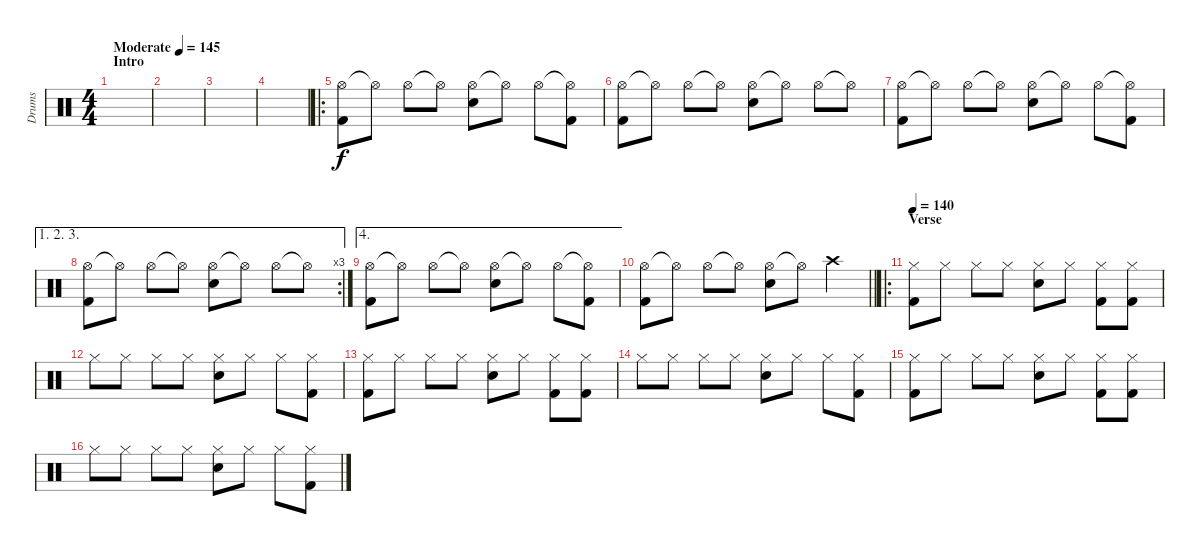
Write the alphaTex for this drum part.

\track ("Drums" "Drums") {instrument percussion}
\staff {score}
\articulation defaults
\ts (4 4)
\section ("" "Intro")
\tempo (145 "Moderate")
\clef neutral
\ks c
|
|
|
|
\ro
("Hi-Hat (open)" "Kick (hit) 2").8 "Hi-Hat (open)"{t}.8 "Hi-Hat (open)".8 "Hi-Hat (open)"{t}.8 ("Hi-Hat (open)" "Snare (hit) 2").8 "Hi-Hat (open)"{t}.8 "Hi-Hat (open)".8 ("Hi-Hat (open)"{t} "Kick (hit) 2").8 |
("Hi-Hat (open)" "Kick (hit) 2").8 "Hi-Hat (open)"{t}.8 "Hi-Hat (open)".8 "Hi-Hat (open)"{t}.8 ("Hi-Hat (open)" "Snare (hit) 2").8 "Hi-Hat (open)"{t}.8 "Hi-Hat (open)".8 "Hi-Hat (open)"{t}.8 |
("Hi-Hat (open)" "Kick (hit) 2").8 "Hi-Hat (open)"{t}.8 "Hi-Hat (open)".8 "Hi-Hat (open)"{t}.8 ("Hi-Hat (open)" "Snare (hit) 2").8 "Hi-Hat (open)"{t}.8 "Hi-Hat (open)".8 ("Hi-Hat (open)"{t} "Kick (hit) 2").8 |
\ae (1 2 3)
\rc 3
("Hi-Hat (open)" "Kick (hit) 2").8 "Hi-Hat (open)"{t}.8 "Hi-Hat (open)".8 "Hi-Hat (open)"{t}.8 ("Hi-Hat (open)" "Snare (hit) 2").8 "Hi-Hat (open)"{t}.8 "Hi-Hat (open)".8 "Hi-Hat (open)"{t}.8 |
\ae 4
("Hi-Hat (open)" "Kick (hit) 2").8 "Hi-Hat (open)"{t}.8 "Hi-Hat (open)".8 "Hi-Hat (open)"{t}.8 ("Hi-Hat (open)" "Snare (hit) 2").8 "Hi-Hat (open)"{t}.8 "Hi-Hat (open)".8 ("Hi-Hat (open)"{t} "Kick (hit) 2").8 |
\barLineRight lightlight
("Hi-Hat (open)" "Kick (hit) 2").8 "Hi-Hat (open)"{t}.8 "Hi-Hat (open)".8 "Hi-Hat (open)"{t}.8 ("Hi-Hat (open)" "Snare (hit) 2").8 "Hi-Hat (open)"{t}.8 "Crash high (hit)".4 |
\ro
\section ("" "Verse")
\tempo 140
("Hi-Hat (closed)" "Kick (hit) 2").8 "Hi-Hat (closed)".8 "Hi-Hat (closed)".8 "Hi-Hat (closed)".8 ("Hi-Hat (closed)" "Snare (hit) 2").8 "Hi-Hat (closed)".8 ("Hi-Hat (closed)" "Kick (hit) 2").8 ("Hi-Hat (closed)" "Kick (hit) 2").8 |
"Hi-Hat (closed)".8 "Hi-Hat (closed)".8 "Hi-Hat (closed)".8 "Hi-Hat (closed)".8 ("Hi-Hat (closed)" "Snare (hit) 2").8 "Hi-Hat (closed)".8 "Hi-Hat (closed)".8 ("Hi-Hat (closed)" "Kick (hit) 2").8 |
("Hi-Hat (closed)" "Kick (hit) 2").8 "Hi-Hat (closed)".8 "Hi-Hat (closed)".8 "Hi-Hat (closed)".8 ("Hi-Hat (closed)" "Snare (hit) 2").8 "Hi-Hat (closed)".8 ("Hi-Hat (closed)" "Kick (hit) 2").8 ("Hi-Hat (closed)" "Kick (hit) 2").8 |
"Hi-Hat (closed)".8 "Hi-Hat (closed)".8 "Hi-Hat (closed)".8 "Hi-Hat (closed)".8 ("Hi-Hat (closed)" "Snare (hit) 2").8 "Hi-Hat (closed)".8 "Hi-Hat (closed)".8 ("Hi-Hat (closed)" "Kick (hit) 2").8 |
("Hi-Hat (closed)" "Kick (hit) 2").8 "Hi-Hat (closed)".8 "Hi-Hat (closed)".8 "Hi-Hat (closed)".8 ("Hi-Hat (closed)" "Snare (hit) 2").8 "Hi-Hat (closed)".8 ("Hi-Hat (closed)" "Kick (hit) 2").8 ("Hi-Hat (closed)" "Kick (hit) 2").8 |
"Hi-Hat (closed)".8 "Hi-Hat (closed)".8 "Hi-Hat (closed)".8 "Hi-Hat (closed)".8 ("Hi-Hat (closed)" "Snare (hit) 2").8 "Hi-Hat (closed)".8 "Hi-Hat (closed)".8 ("Hi-Hat (closed)" "Kick (hit) 2").8
